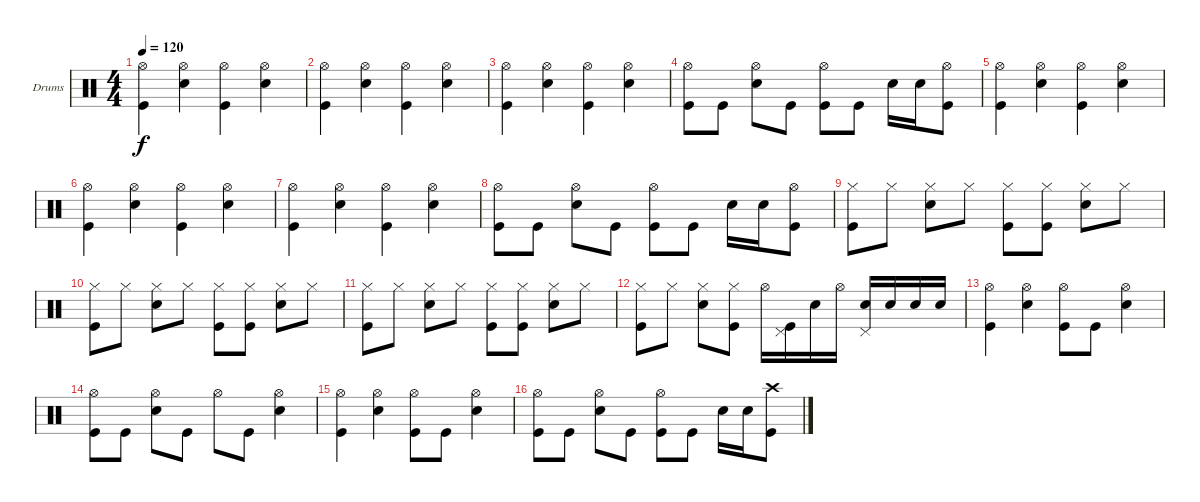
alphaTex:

\bracketExtendMode groupsimilarinstruments
\firstSystemTrackNameOrientation horizontal
\otherSystemsTrackNameOrientation horizontal
\track ("Drumkit" "Drums") {instrument percussion}
\staff {score}
\articulation defaults
\ts (4 4)
\tempo 120
\clef neutral
\ks c
("Kick (hit)" "Hi-Hat (open)").4{dy f} ("Snare (hit) 2" "Hi-Hat (open)").4 ("Kick (hit)" "Hi-Hat (open)").4 ("Snare (hit) 2" "Hi-Hat (open)").4 |
("Kick (hit)" "Hi-Hat (open)").4 ("Snare (hit) 2" "Hi-Hat (open)").4 ("Kick (hit)" "Hi-Hat (open)").4 ("Snare (hit) 2" "Hi-Hat (open)").4 |
("Kick (hit)" "Hi-Hat (open)").4 ("Snare (hit) 2" "Hi-Hat (open)").4 ("Kick (hit)" "Hi-Hat (open)").4 ("Snare (hit) 2" "Hi-Hat (open)").4 |
("Kick (hit)" "Hi-Hat (open)").8 "Kick (hit)".8 ("Snare (hit) 2" "Hi-Hat (open)").8 "Kick (hit)".8 ("Hi-Hat (open)" "Kick (hit)").8 "Kick (hit)".8 "Snare (hit) 2".16 "Snare (hit) 2".16 ("Hi-Hat (open)" "Kick (hit)").8 |
("Kick (hit)" "Hi-Hat (open)").4 ("Snare (hit) 2" "Hi-Hat (open)").4 ("Kick (hit)" "Hi-Hat (open)").4 ("Snare (hit) 2" "Hi-Hat (open)").4 |
("Kick (hit)" "Hi-Hat (open)").4 ("Snare (hit) 2" "Hi-Hat (open)").4 ("Kick (hit)" "Hi-Hat (open)").4 ("Snare (hit) 2" "Hi-Hat (open)").4 |
("Kick (hit)" "Hi-Hat (open)").4 ("Snare (hit) 2" "Hi-Hat (open)").4 ("Kick (hit)" "Hi-Hat (open)").4 ("Snare (hit) 2" "Hi-Hat (open)").4 |
("Kick (hit)" "Hi-Hat (open)").8 "Kick (hit)".8 ("Snare (hit) 2" "Hi-Hat (open)").8 "Kick (hit)".8 ("Hi-Hat (open)" "Kick (hit)").8 "Kick (hit)".8 "Snare (hit) 2".16 "Snare (hit) 2".16 ("Hi-Hat (open)" "Kick (hit)").8 |
("Hi-Hat (closed)" "Kick (hit)").8 "Hi-Hat (closed)".8 ("Hi-Hat (closed)" "Snare (hit) 2").8 "Hi-Hat (closed)".8 ("Hi-Hat (closed)" "Kick (hit)").8 ("Hi-Hat (closed)" "Kick (hit)").8 ("Hi-Hat (closed)" "Snare (hit) 2").8 "Hi-Hat (closed)".8 |
("Hi-Hat (closed)" "Kick (hit)").8 "Hi-Hat (closed)".8 ("Hi-Hat (closed)" "Snare (hit) 2").8 "Hi-Hat (closed)".8 ("Hi-Hat (closed)" "Kick (hit)").8 ("Hi-Hat (closed)" "Kick (hit)").8 ("Hi-Hat (closed)" "Snare (hit) 2").8 "Hi-Hat (closed)".8 |
("Hi-Hat (closed)" "Kick (hit)").8 "Hi-Hat (closed)".8 ("Hi-Hat (closed)" "Snare (hit) 2").8 "Hi-Hat (closed)".8 ("Hi-Hat (closed)" "Kick (hit)").8 ("Hi-Hat (closed)" "Kick (hit)").8 ("Hi-Hat (closed)" "Snare (hit) 2").8 "Hi-Hat (closed)".8 |
("Hi-Hat (closed)" "Kick (hit)").8 "Hi-Hat (closed)".8 ("Hi-Hat (closed)" "Snare (hit) 2").8 ("Hi-Hat (closed)" "Kick (hit)").8 "Hi-Hat (open)".16 ("Kick (hit)" "Pedal Hi-Hat (hit)").16 "Snare (hit) 2".16 "Hi-Hat (open)".16 ("Snare (hit) 2" "Pedal Hi-Hat (hit)").16 "Snare (hit) 2".16 "Snare (hit) 2".16 "Snare (hit) 2".16 |
("Kick (hit)" "Hi-Hat (open)").4 ("Snare (hit) 2" "Hi-Hat (open)").4 ("Kick (hit)" "Hi-Hat (open)").8 "Kick (hit)".8 ("Snare (hit) 2" "Hi-Hat (open)").4 |
("Kick (hit)" "Hi-Hat (open)").8 "Kick (hit)".8 ("Snare (hit) 2" "Hi-Hat (open)").8 "Kick (hit)".8 "Hi-Hat (open)".8 "Kick (hit)".8 ("Snare (hit) 2" "Hi-Hat (open)").4 |
("Kick (hit)" "Hi-Hat (open)").4 ("Snare (hit) 2" "Hi-Hat (open)").4 ("Kick (hit)" "Hi-Hat (open)").8 "Kick (hit)".8 ("Snare (hit) 2" "Hi-Hat (open)").4 |
("Kick (hit)" "Hi-Hat (open)").8 "Kick (hit)".8 ("Snare (hit) 2" "Hi-Hat (open)").8 "Kick (hit)".8 ("Hi-Hat (open)" "Kick (hit)").8 "Kick (hit)".8 "Snare (hit) 2".16 "Snare (hit) 2".16 ("Crash high (hit)" "Kick (hit)").8
